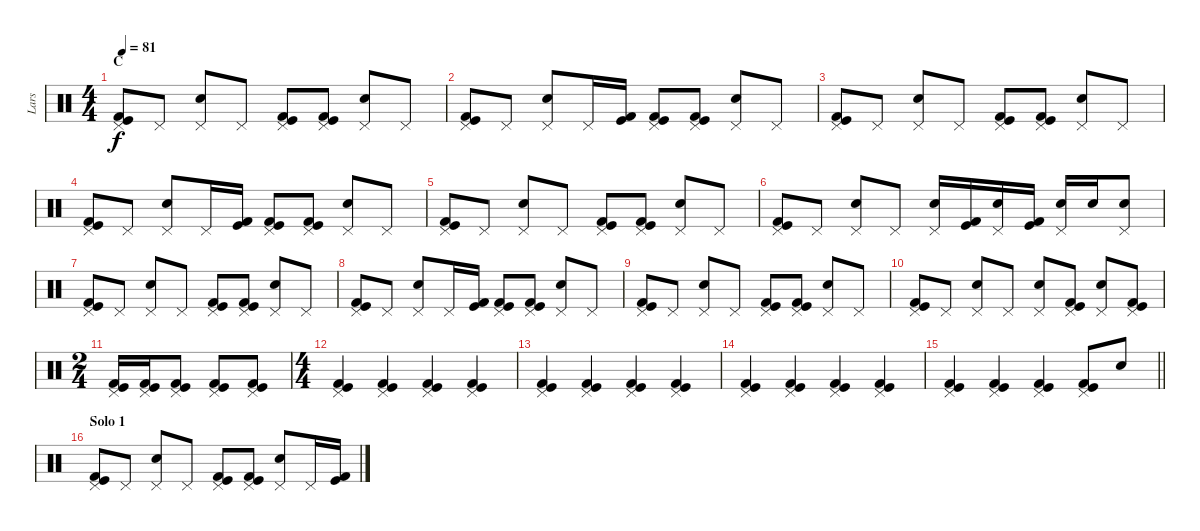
\track ("Lars" "Lars") {instrument percussion}
\staff {score}
\articulation defaults
\ts (4 4)
\section ("" "C")
\tempo 81
\clef neutral
\ks c
("Pedal Hi-Hat (hit)" "Kick (hit)" "Kick (hit) 2").8{dy f} "Pedal Hi-Hat (hit)".8 ("Pedal Hi-Hat (hit)" "Electric Snare (hit)").8 "Pedal Hi-Hat (hit)".8 ("Pedal Hi-Hat (hit)" "Kick (hit)" "Kick (hit) 2").8 ("Pedal Hi-Hat (hit)" "Kick (hit)" "Kick (hit) 2").8 ("Pedal Hi-Hat (hit)" "Electric Snare (hit)").8 "Pedal Hi-Hat (hit)".8 |
("Pedal Hi-Hat (hit)" "Kick (hit)" "Kick (hit) 2").8 "Pedal Hi-Hat (hit)".8 ("Pedal Hi-Hat (hit)" "Electric Snare (hit)").8 "Pedal Hi-Hat (hit)".16 ("Kick (hit)" "Kick (hit) 2").16 ("Pedal Hi-Hat (hit)" "Kick (hit)" "Kick (hit) 2").8 ("Pedal Hi-Hat (hit)" "Kick (hit)" "Kick (hit) 2").8 ("Pedal Hi-Hat (hit)" "Electric Snare (hit)").8 "Pedal Hi-Hat (hit)".8 |
("Pedal Hi-Hat (hit)" "Kick (hit)" "Kick (hit) 2").8 "Pedal Hi-Hat (hit)".8 ("Pedal Hi-Hat (hit)" "Electric Snare (hit)").8 "Pedal Hi-Hat (hit)".8 ("Pedal Hi-Hat (hit)" "Kick (hit)" "Kick (hit) 2").8 ("Pedal Hi-Hat (hit)" "Kick (hit)" "Kick (hit) 2").8 ("Pedal Hi-Hat (hit)" "Electric Snare (hit)").8 "Pedal Hi-Hat (hit)".8 |
("Pedal Hi-Hat (hit)" "Kick (hit)" "Kick (hit) 2").8 "Pedal Hi-Hat (hit)".8 ("Pedal Hi-Hat (hit)" "Electric Snare (hit)").8 "Pedal Hi-Hat (hit)".16 ("Kick (hit)" "Kick (hit) 2").16 ("Pedal Hi-Hat (hit)" "Kick (hit)" "Kick (hit) 2").8 ("Pedal Hi-Hat (hit)" "Kick (hit)" "Kick (hit) 2").8 ("Pedal Hi-Hat (hit)" "Electric Snare (hit)").8 "Pedal Hi-Hat (hit)".8 |
("Pedal Hi-Hat (hit)" "Kick (hit)" "Kick (hit) 2").8 "Pedal Hi-Hat (hit)".8 ("Pedal Hi-Hat (hit)" "Electric Snare (hit)").8 "Pedal Hi-Hat (hit)".8 ("Pedal Hi-Hat (hit)" "Kick (hit)" "Kick (hit) 2").8 ("Pedal Hi-Hat (hit)" "Kick (hit)" "Kick (hit) 2").8 ("Pedal Hi-Hat (hit)" "Electric Snare (hit)").8 "Pedal Hi-Hat (hit)".8 |
("Pedal Hi-Hat (hit)" "Kick (hit)" "Kick (hit) 2").8 "Pedal Hi-Hat (hit)".8 ("Pedal Hi-Hat (hit)" "Electric Snare (hit)").8 "Pedal Hi-Hat (hit)".8 ("Pedal Hi-Hat (hit)" "Electric Snare (hit)").16 ("Kick (hit)" "Kick (hit) 2").16 ("Pedal Hi-Hat (hit)" "Electric Snare (hit)").16 ("Kick (hit)" "Kick (hit) 2").16 ("Pedal Hi-Hat (hit)" "Electric Snare (hit)").16 "Electric Snare (hit)".16 ("Pedal Hi-Hat (hit)" "Electric Snare (hit)").8 |
("Pedal Hi-Hat (hit)" "Kick (hit)" "Kick (hit) 2").8 "Pedal Hi-Hat (hit)".8 ("Pedal Hi-Hat (hit)" "Electric Snare (hit)").8 "Pedal Hi-Hat (hit)".8 ("Pedal Hi-Hat (hit)" "Kick (hit)" "Kick (hit) 2").8 ("Pedal Hi-Hat (hit)" "Kick (hit)" "Kick (hit) 2").8 ("Pedal Hi-Hat (hit)" "Electric Snare (hit)").8 "Pedal Hi-Hat (hit)".8 |
("Pedal Hi-Hat (hit)" "Kick (hit)" "Kick (hit) 2").8 "Pedal Hi-Hat (hit)".8 ("Pedal Hi-Hat (hit)" "Electric Snare (hit)").8 "Pedal Hi-Hat (hit)".16 ("Kick (hit)" "Kick (hit) 2").16 ("Pedal Hi-Hat (hit)" "Kick (hit)" "Kick (hit) 2").8 ("Pedal Hi-Hat (hit)" "Kick (hit)" "Kick (hit) 2").8 ("Pedal Hi-Hat (hit)" "Electric Snare (hit)").8 "Pedal Hi-Hat (hit)".8 |
("Pedal Hi-Hat (hit)" "Kick (hit)" "Kick (hit) 2").8 "Pedal Hi-Hat (hit)".8 ("Pedal Hi-Hat (hit)" "Electric Snare (hit)").8 "Pedal Hi-Hat (hit)".8 ("Pedal Hi-Hat (hit)" "Kick (hit)" "Kick (hit) 2").8 ("Pedal Hi-Hat (hit)" "Kick (hit)" "Kick (hit) 2").8 ("Pedal Hi-Hat (hit)" "Electric Snare (hit)").8 "Pedal Hi-Hat (hit)".8 |
("Pedal Hi-Hat (hit)" "Kick (hit)" "Kick (hit) 2").8 "Pedal Hi-Hat (hit)".8 ("Pedal Hi-Hat (hit)" "Electric Snare (hit)").8 "Pedal Hi-Hat (hit)".8 ("Pedal Hi-Hat (hit)" "Electric Snare (hit)").8 ("Pedal Hi-Hat (hit)" "Kick (hit)" "Kick (hit) 2").8 ("Pedal Hi-Hat (hit)" "Electric Snare (hit)").8 ("Pedal Hi-Hat (hit)" "Kick (hit)" "Kick (hit) 2").8 |
\ts (2 4)
("Pedal Hi-Hat (hit)" "Kick (hit)" "Kick (hit) 2").16 ("Pedal Hi-Hat (hit)" "Kick (hit)" "Kick (hit) 2").16 ("Pedal Hi-Hat (hit)" "Kick (hit)" "Kick (hit) 2").8 ("Pedal Hi-Hat (hit)" "Kick (hit)" "Kick (hit) 2").8 ("Pedal Hi-Hat (hit)" "Kick (hit)" "Kick (hit) 2").8 |
\ts (4 4)
("Pedal Hi-Hat (hit)" "Kick (hit)" "Kick (hit) 2").4 ("Pedal Hi-Hat (hit)" "Kick (hit)" "Kick (hit) 2").4 ("Pedal Hi-Hat (hit)" "Kick (hit)" "Kick (hit) 2").4 ("Pedal Hi-Hat (hit)" "Kick (hit)" "Kick (hit) 2").4 |
("Pedal Hi-Hat (hit)" "Kick (hit)" "Kick (hit) 2").4 ("Pedal Hi-Hat (hit)" "Kick (hit)" "Kick (hit) 2").4 ("Pedal Hi-Hat (hit)" "Kick (hit)" "Kick (hit) 2").4 ("Pedal Hi-Hat (hit)" "Kick (hit)" "Kick (hit) 2").4 |
("Pedal Hi-Hat (hit)" "Kick (hit)" "Kick (hit) 2").4 ("Pedal Hi-Hat (hit)" "Kick (hit)" "Kick (hit) 2").4 ("Pedal Hi-Hat (hit)" "Kick (hit)" "Kick (hit) 2").4 ("Pedal Hi-Hat (hit)" "Kick (hit)" "Kick (hit) 2").4 |
\barLineRight lightlight
("Pedal Hi-Hat (hit)" "Kick (hit)" "Kick (hit) 2").4 ("Pedal Hi-Hat (hit)" "Kick (hit)" "Kick (hit) 2").4 ("Pedal Hi-Hat (hit)" "Kick (hit)" "Kick (hit) 2").4 ("Pedal Hi-Hat (hit)" "Kick (hit)" "Kick (hit) 2").8 "Electric Snare (hit)".8 |
\section ("" "Solo 1")
("Pedal Hi-Hat (hit)" "Kick (hit)" "Kick (hit) 2").8 "Pedal Hi-Hat (hit)".8 ("Pedal Hi-Hat (hit)" "Electric Snare (hit)").8 "Pedal Hi-Hat (hit)".8 ("Pedal Hi-Hat (hit)" "Kick (hit)" "Kick (hit) 2").8 ("Pedal Hi-Hat (hit)" "Kick (hit)" "Kick (hit) 2").8 ("Pedal Hi-Hat (hit)" "Electric Snare (hit)").8 "Pedal Hi-Hat (hit)".16 ("Kick (hit)" "Kick (hit) 2").16
